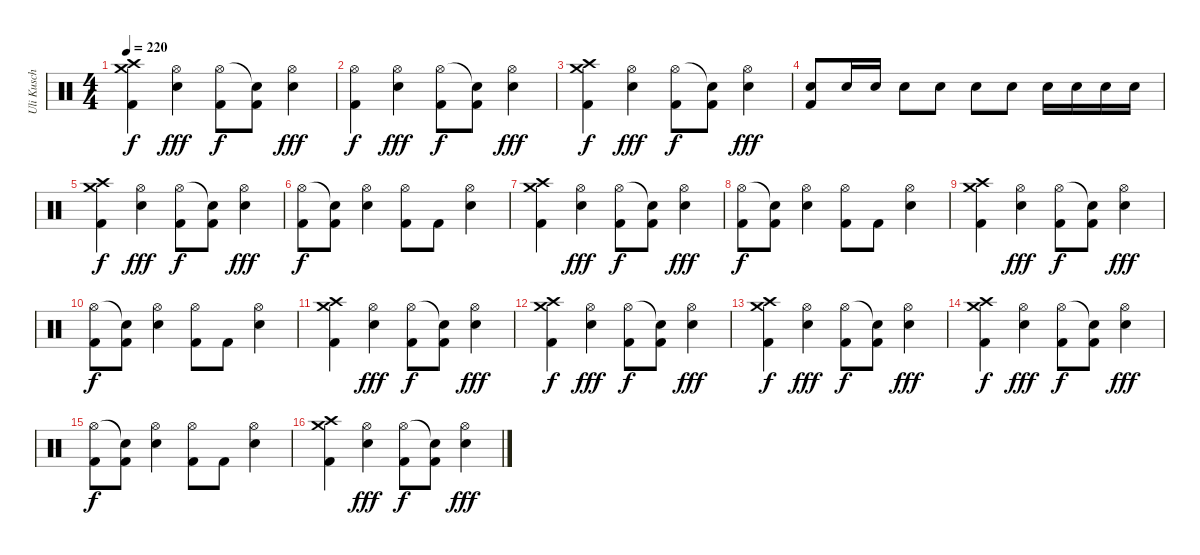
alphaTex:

\track ("Uli Kusch" "Uli Kusch") {instrument percussion}
\staff {score}
\articulation defaults
\ts (4 4)
\tempo 220
\clef neutral
\ks c
("Crash high (hit)" "Crash medium (hit)" "Kick (hit) 2").4{dy f} ("Hi-Hat (open)" "Electric Snare (hit)").4{dy fff} ("Hi-Hat (open)" "Kick (hit) 2").8{dy f} ("Snare (hit)"{t} "Kick (hit) 2").8 ("Hi-Hat (open)" "Electric Snare (hit)").4{dy fff} |
("Hi-Hat (open)" "Kick (hit) 2").4{dy f} ("Hi-Hat (open)" "Electric Snare (hit)").4{dy fff} ("Hi-Hat (open)" "Kick (hit) 2").8{dy f} ("Snare (hit)"{t} "Kick (hit) 2").8 ("Hi-Hat (open)" "Electric Snare (hit)").4{dy fff} |
("Crash high (hit)" "Crash medium (hit)" "Kick (hit) 2").4{dy f} ("Hi-Hat (open)" "Electric Snare (hit)").4{dy fff} ("Hi-Hat (open)" "Kick (hit) 2").8{dy f} ("Snare (hit)"{t} "Kick (hit) 2").8 ("Hi-Hat (open)" "Electric Snare (hit)").4{dy fff} |
("Electric Snare (hit)" "Kick (hit) 2").8 "Electric Snare (hit)".16 "Electric Snare (hit)".16 "Electric Snare (hit)".8 "Electric Snare (hit)".8 "Electric Snare (hit)".8 "Electric Snare (hit)".8 "Electric Snare (hit)".16 "Electric Snare (hit)".16 "Electric Snare (hit)".16 "Electric Snare (hit)".16 |
("Crash medium (hit)" "Crash high (hit)" "Kick (hit) 2").4{dy f} ("Hi-Hat (open)" "Electric Snare (hit)").4{dy fff} ("Hi-Hat (open)" "Kick (hit) 2").8{dy f} ("Snare (hit)"{t} "Kick (hit) 2").8 ("Hi-Hat (open)" "Electric Snare (hit)").4{dy fff} |
("Hi-Hat (open)" "Kick (hit) 2").8{dy f} ("Snare (hit)"{t} "Kick (hit) 2").8 ("Hi-Hat (open)" "Electric Snare (hit)").4 ("Hi-Hat (open)" "Kick (hit) 2").8 "Kick (hit) 2".8 ("Hi-Hat (open)" "Electric Snare (hit)").4 |
("Crash medium (hit)" "Crash high (hit)" "Kick (hit) 2").4 ("Hi-Hat (open)" "Electric Snare (hit)").4{dy fff} ("Hi-Hat (open)" "Kick (hit) 2").8{dy f} ("Snare (hit)"{t} "Kick (hit) 2").8 ("Hi-Hat (open)" "Electric Snare (hit)").4{dy fff} |
("Hi-Hat (open)" "Kick (hit) 2").8{dy f} ("Snare (hit)"{t} "Kick (hit) 2").8 ("Hi-Hat (open)" "Electric Snare (hit)").4 ("Hi-Hat (open)" "Kick (hit) 2").8 "Kick (hit) 2".8 ("Hi-Hat (open)" "Electric Snare (hit)").4 |
("Crash medium (hit)" "Crash high (hit)" "Kick (hit) 2").4 ("Hi-Hat (open)" "Electric Snare (hit)").4{dy fff} ("Hi-Hat (open)" "Kick (hit) 2").8{dy f} ("Snare (hit)"{t} "Kick (hit) 2").8 ("Hi-Hat (open)" "Electric Snare (hit)").4{dy fff} |
("Hi-Hat (open)" "Kick (hit) 2").8{dy f} ("Snare (hit)"{t} "Kick (hit) 2").8 ("Hi-Hat (open)" "Electric Snare (hit)").4 ("Hi-Hat (open)" "Kick (hit) 2").8 "Kick (hit) 2".8 ("Hi-Hat (open)" "Electric Snare (hit)").4 |
("Crash medium (hit)" "Crash high (hit)" "Kick (hit) 2").4 ("Hi-Hat (open)" "Electric Snare (hit)").4{dy fff} ("Hi-Hat (open)" "Kick (hit) 2").8{dy f} ("Snare (hit)"{t} "Kick (hit) 2").8 ("Hi-Hat (open)" "Electric Snare (hit)").4{dy fff} |
("Crash medium (hit)" "Crash high (hit)" "Kick (hit) 2").4{dy f} ("Hi-Hat (open)" "Electric Snare (hit)").4{dy fff} ("Hi-Hat (open)" "Kick (hit) 2").8{dy f} ("Snare (hit)"{t} "Kick (hit) 2").8 ("Hi-Hat (open)" "Electric Snare (hit)").4{dy fff} |
("Crash medium (hit)" "Crash high (hit)" "Kick (hit) 2").4{dy f} ("Hi-Hat (open)" "Electric Snare (hit)").4{dy fff} ("Hi-Hat (open)" "Kick (hit) 2").8{dy f} ("Snare (hit)"{t} "Kick (hit) 2").8 ("Hi-Hat (open)" "Electric Snare (hit)").4{dy fff} |
("Crash medium (hit)" "Crash high (hit)" "Kick (hit) 2").4{dy f} ("Hi-Hat (open)" "Electric Snare (hit)").4{dy fff} ("Hi-Hat (open)" "Kick (hit) 2").8{dy f} ("Snare (hit)"{t} "Kick (hit) 2").8 ("Hi-Hat (open)" "Electric Snare (hit)").4{dy fff} |
("Hi-Hat (open)" "Kick (hit) 2").8{dy f} ("Snare (hit)"{t} "Kick (hit) 2").8 ("Hi-Hat (open)" "Electric Snare (hit)").4 ("Hi-Hat (open)" "Kick (hit) 2").8 "Kick (hit) 2".8 ("Hi-Hat (open)" "Electric Snare (hit)").4 |
("Crash medium (hit)" "Crash high (hit)" "Kick (hit) 2").4 ("Hi-Hat (open)" "Electric Snare (hit)").4{dy fff} ("Hi-Hat (open)" "Kick (hit) 2").8{dy f} ("Snare (hit)"{t} "Kick (hit) 2").8 ("Hi-Hat (open)" "Electric Snare (hit)").4{dy fff}
